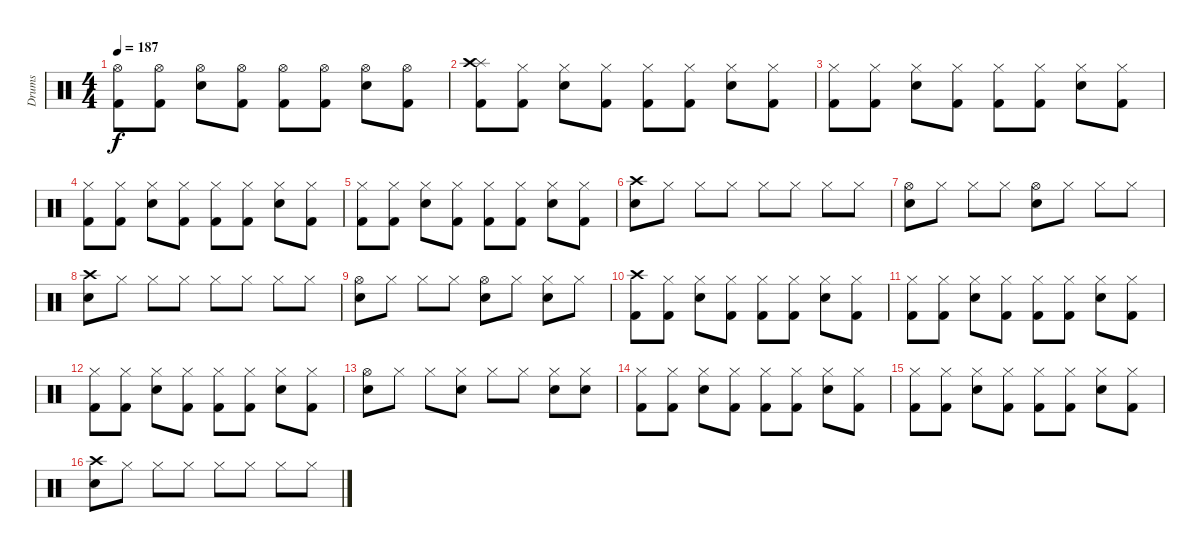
\track ("Drums" "Drums") {instrument percussion}
\staff {score}
\articulation defaults
\ts (4 4)
\tempo 187
\clef neutral
\ks c
("Hi-Hat (open)" "Kick (hit) 2").8{dy f} ("Hi-Hat (open)" "Kick (hit) 2").8 ("Hi-Hat (open)" "Electric Snare (hit)").8 ("Hi-Hat (open)" "Kick (hit) 2").8 ("Hi-Hat (open)" "Kick (hit) 2").8 ("Hi-Hat (open)" "Kick (hit) 2").8 ("Hi-Hat (open)" "Snare (hit) 2").8 ("Hi-Hat (open)" "Kick (hit) 2").8 |
("Splash (hit)" "Crash high (hit)" "Kick (hit) 2").8 ("Hi-Hat (closed)" "Kick (hit) 2").8 ("Hi-Hat (closed)" "Snare (hit) 2").8 ("Kick (hit) 2" "Hi-Hat (closed)").8 ("Hi-Hat (closed)" "Kick (hit) 2").8 ("Hi-Hat (closed)" "Kick (hit) 2").8 ("Hi-Hat (closed)" "Snare (hit) 2").8 ("Kick (hit) 2" "Hi-Hat (closed)").8 |
("Hi-Hat (closed)" "Kick (hit) 2").8 ("Hi-Hat (closed)" "Kick (hit) 2").8 ("Hi-Hat (closed)" "Snare (hit) 2").8 ("Kick (hit) 2" "Hi-Hat (closed)").8 ("Hi-Hat (closed)" "Kick (hit) 2").8 ("Hi-Hat (closed)" "Kick (hit) 2").8 ("Hi-Hat (closed)" "Snare (hit) 2").8 ("Kick (hit) 2" "Hi-Hat (closed)").8 |
("Hi-Hat (closed)" "Kick (hit) 2").8 ("Hi-Hat (closed)" "Kick (hit) 2").8 ("Hi-Hat (closed)" "Snare (hit) 2").8 ("Kick (hit) 2" "Hi-Hat (closed)").8 ("Hi-Hat (closed)" "Kick (hit) 2").8 ("Hi-Hat (closed)" "Kick (hit) 2").8 ("Hi-Hat (closed)" "Snare (hit) 2").8 ("Kick (hit) 2" "Hi-Hat (closed)").8 |
("Hi-Hat (closed)" "Kick (hit) 2").8 ("Hi-Hat (closed)" "Kick (hit) 2").8 ("Hi-Hat (closed)" "Snare (hit) 2").8 ("Kick (hit) 2" "Hi-Hat (closed)").8 ("Hi-Hat (closed)" "Kick (hit) 2").8 ("Hi-Hat (closed)" "Kick (hit) 2").8 ("Hi-Hat (closed)" "Snare (hit) 2").8 ("Kick (hit) 2" "Hi-Hat (closed)").8 |
("Electric Snare (hit)" "Crash high (hit)").8 "Hi-Hat (closed)".8 "Hi-Hat (closed)".8 "Hi-Hat (closed)".8 "Hi-Hat (closed)".8 "Hi-Hat (closed)".8 "Hi-Hat (closed)".8 "Hi-Hat (closed)".8 |
("Electric Snare (hit)" "Hi-Hat (open)").8 "Hi-Hat (closed)".8 "Hi-Hat (closed)".8 "Hi-Hat (closed)".8 ("Snare (hit) 2" "Hi-Hat (open)").8 "Hi-Hat (closed)".8 "Hi-Hat (closed)".8 "Hi-Hat (closed)".8 |
("Electric Snare (hit)" "Crash high (hit)").8 "Hi-Hat (closed)".8 "Hi-Hat (closed)".8 "Hi-Hat (closed)".8 "Hi-Hat (closed)".8 "Hi-Hat (closed)".8 "Hi-Hat (closed)".8 "Hi-Hat (closed)".8 |
("Electric Snare (hit)" "Hi-Hat (open)").8 "Hi-Hat (closed)".8 "Hi-Hat (closed)".8 "Hi-Hat (closed)".8 ("Snare (hit) 2" "Hi-Hat (open)").8 "Hi-Hat (closed)".8 ("Snare (hit) 2" "Hi-Hat (closed)").8 "Hi-Hat (closed)".8 |
("Crash high (hit)" "Kick (hit) 2").8 ("Hi-Hat (closed)" "Kick (hit) 2").8 ("Hi-Hat (closed)" "Snare (hit) 2").8 ("Kick (hit) 2" "Hi-Hat (closed)").8 ("Hi-Hat (closed)" "Kick (hit) 2").8 ("Kick (hit) 2" "Hi-Hat (closed)").8 ("Electric Snare (hit)" "Hi-Hat (closed)").8 ("Kick (hit) 2" "Hi-Hat (closed)").8 |
("Hi-Hat (closed)" "Kick (hit) 2").8 ("Hi-Hat (closed)" "Kick (hit) 2").8 ("Hi-Hat (closed)" "Snare (hit) 2").8 ("Kick (hit) 2" "Hi-Hat (closed)").8 ("Hi-Hat (closed)" "Kick (hit) 2").8 ("Hi-Hat (closed)" "Kick (hit) 2").8 ("Hi-Hat (closed)" "Snare (hit) 2").8 ("Kick (hit) 2" "Hi-Hat (closed)").8 |
("Hi-Hat (closed)" "Kick (hit) 2").8 ("Hi-Hat (closed)" "Kick (hit) 2").8 ("Hi-Hat (closed)" "Snare (hit) 2").8 ("Kick (hit) 2" "Hi-Hat (closed)").8 ("Hi-Hat (closed)" "Kick (hit) 2").8 ("Hi-Hat (closed)" "Kick (hit) 2").8 ("Hi-Hat (closed)" "Snare (hit) 2").8 ("Kick (hit) 2" "Hi-Hat (closed)").8 |
("Hi-Hat (open)" "Snare (hit) 2").8 "Hi-Hat (closed)".8 "Hi-Hat (closed)".8 ("Snare (hit) 2" "Hi-Hat (closed)").8 "Hi-Hat (closed)".8 "Hi-Hat (closed)".8 ("Hi-Hat (closed)" "Snare (hit) 2").8 ("Hi-Hat (closed)" "Snare (hit) 2").8 |
("Hi-Hat (closed)" "Kick (hit) 2").8 ("Hi-Hat (closed)" "Kick (hit) 2").8 ("Hi-Hat (closed)" "Snare (hit) 2").8 ("Kick (hit) 2" "Hi-Hat (closed)").8 ("Hi-Hat (closed)" "Kick (hit) 2").8 ("Hi-Hat (closed)" "Kick (hit) 2").8 ("Hi-Hat (closed)" "Snare (hit) 2").8 ("Kick (hit) 2" "Hi-Hat (closed)").8 |
("Hi-Hat (closed)" "Kick (hit) 2").8 ("Hi-Hat (closed)" "Kick (hit) 2").8 ("Hi-Hat (closed)" "Snare (hit) 2").8 ("Kick (hit) 2" "Hi-Hat (closed)").8 ("Hi-Hat (closed)" "Kick (hit) 2").8 ("Hi-Hat (closed)" "Kick (hit) 2").8 ("Hi-Hat (closed)" "Snare (hit) 2").8 ("Kick (hit) 2" "Hi-Hat (closed)").8 |
("Electric Snare (hit)" "Crash high (hit)").8 "Hi-Hat (closed)".8 "Hi-Hat (closed)".8 "Hi-Hat (closed)".8 "Hi-Hat (closed)".8 "Hi-Hat (closed)".8 "Hi-Hat (closed)".8 "Hi-Hat (closed)".8
